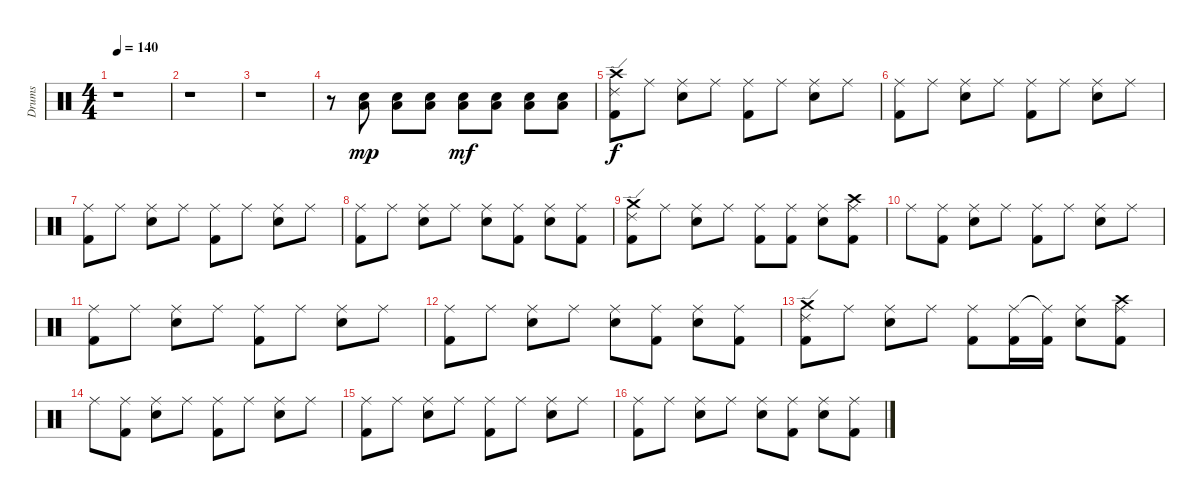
\track ("Drums" "Drums") {instrument percussion}
\staff {score}
\articulation defaults
\ts (4 4)
\tempo 140
\clef neutral
\ks c
r.1{dy mp} |
r.1 |
r.1 |
r.8 ("Electric Snare (hit)" "Low Floor Tom (hit)").8 ("Electric Snare (hit)" "Low Floor Tom (hit)").8 ("Electric Snare (hit)" "Low Floor Tom (hit)").8 ("Electric Snare (hit)" "Low Floor Tom (hit)").8{dy mf} ("Electric Snare (hit)" "Low Floor Tom (hit)").8 ("Electric Snare (hit)" "Low Floor Tom (hit)").8 ("Electric Snare (hit)" "Low Floor Tom (hit)").8 |
("Ride (edge) 2" "Kick (hit) 2" "Crash high (hit)").8{dy f} "Ride (middle)".8 ("Ride (middle)" "Electric Snare (hit)").8 "Ride (middle)".8 ("Ride (middle)" "Kick (hit) 2").8 "Ride (middle)".8 ("Ride (middle)" "Electric Snare (hit)").8 "Ride (middle)".8 |
("Ride (middle)" "Kick (hit) 2").8 "Ride (middle)".8 ("Ride (middle)" "Electric Snare (hit)").8 "Ride (middle)".8 ("Ride (middle)" "Kick (hit) 2").8 "Ride (middle)".8 ("Ride (middle)" "Electric Snare (hit)").8 "Ride (middle)".8 |
("Ride (middle)" "Kick (hit) 2").8 "Ride (middle)".8 ("Ride (middle)" "Electric Snare (hit)").8 "Ride (middle)".8 ("Ride (middle)" "Kick (hit) 2").8 "Ride (middle)".8 ("Ride (middle)" "Electric Snare (hit)").8 "Ride (middle)".8 |
("Ride (middle)" "Kick (hit) 2").8 "Ride (middle)".8 ("Ride (middle)" "Electric Snare (hit)").8 "Ride (middle)".8 ("Ride (middle)" "Electric Snare (hit)").8 ("Ride (middle)" "Kick (hit) 2").8 ("Ride (middle)" "Electric Snare (hit)").8 ("Ride (middle)" "Kick (hit) 2").8 |
("Ride (edge) 2" "Kick (hit) 2" "Crash medium (hit)").8 "Ride (middle)".8 ("Ride (middle)" "Electric Snare (hit)").8 "Ride (middle)".8 ("Ride (middle)" "Kick (hit) 2").8 ("Ride (middle)" "Kick (hit) 2").8 ("Ride (middle)" "Electric Snare (hit)").8 ("Ride (middle)" "Kick (hit) 2" "Crash high (hit)").8 |
"Ride (middle)".8 ("Ride (middle)" "Kick (hit) 2").8 ("Ride (middle)" "Electric Snare (hit)").8 "Ride (middle)".8 ("Ride (middle)" "Kick (hit) 2").8 "Ride (middle)".8 ("Ride (middle)" "Electric Snare (hit)").8 "Ride (middle)".8 |
("Ride (middle)" "Kick (hit) 2").8 "Ride (middle)".8 ("Ride (middle)" "Electric Snare (hit)").8 "Ride (middle)".8 ("Ride (middle)" "Kick (hit) 2").8 "Ride (middle)".8 ("Ride (middle)" "Electric Snare (hit)").8 "Ride (middle)".8 |
("Ride (middle)" "Kick (hit) 2").8 "Ride (middle)".8 ("Ride (middle)" "Electric Snare (hit)").8 "Ride (middle)".8 ("Ride (middle)" "Electric Snare (hit)").8 ("Ride (middle)" "Kick (hit) 2").8 ("Ride (middle)" "Electric Snare (hit)").8 ("Ride (middle)" "Kick (hit) 2").8 |
("Ride (edge) 2" "Kick (hit) 2" "Crash medium (hit)").8 "Ride (middle)".8 ("Ride (middle)" "Electric Snare (hit)").8 "Ride (middle)".8 ("Ride (middle)" "Kick (hit) 2").8 ("Ride (middle)" "Kick (hit) 2").16 ("Ride (middle)"{t} "Kick (hit) 2").16 ("Ride (middle)" "Electric Snare (hit)").8 ("Ride (middle)" "Kick (hit) 2" "Crash high (hit)").8 |
"Ride (middle)".8 ("Ride (middle)" "Kick (hit) 2").8 ("Ride (middle)" "Electric Snare (hit)").8 "Ride (middle)".8 ("Ride (middle)" "Kick (hit) 2").8 "Ride (middle)".8 ("Ride (middle)" "Electric Snare (hit)").8 "Ride (middle)".8 |
("Ride (middle)" "Kick (hit) 2").8 "Ride (middle)".8 ("Ride (middle)" "Electric Snare (hit)").8 "Ride (middle)".8 ("Ride (middle)" "Kick (hit) 2").8 "Ride (middle)".8 ("Ride (middle)" "Electric Snare (hit)").8 "Ride (middle)".8 |
("Ride (middle)" "Kick (hit) 2").8 "Ride (middle)".8 ("Ride (middle)" "Electric Snare (hit)").8 "Ride (middle)".8 ("Ride (middle)" "Electric Snare (hit)").8 ("Ride (middle)" "Kick (hit) 2").8 ("Ride (middle)" "Electric Snare (hit)").8 ("Ride (middle)" "Kick (hit) 2").8
